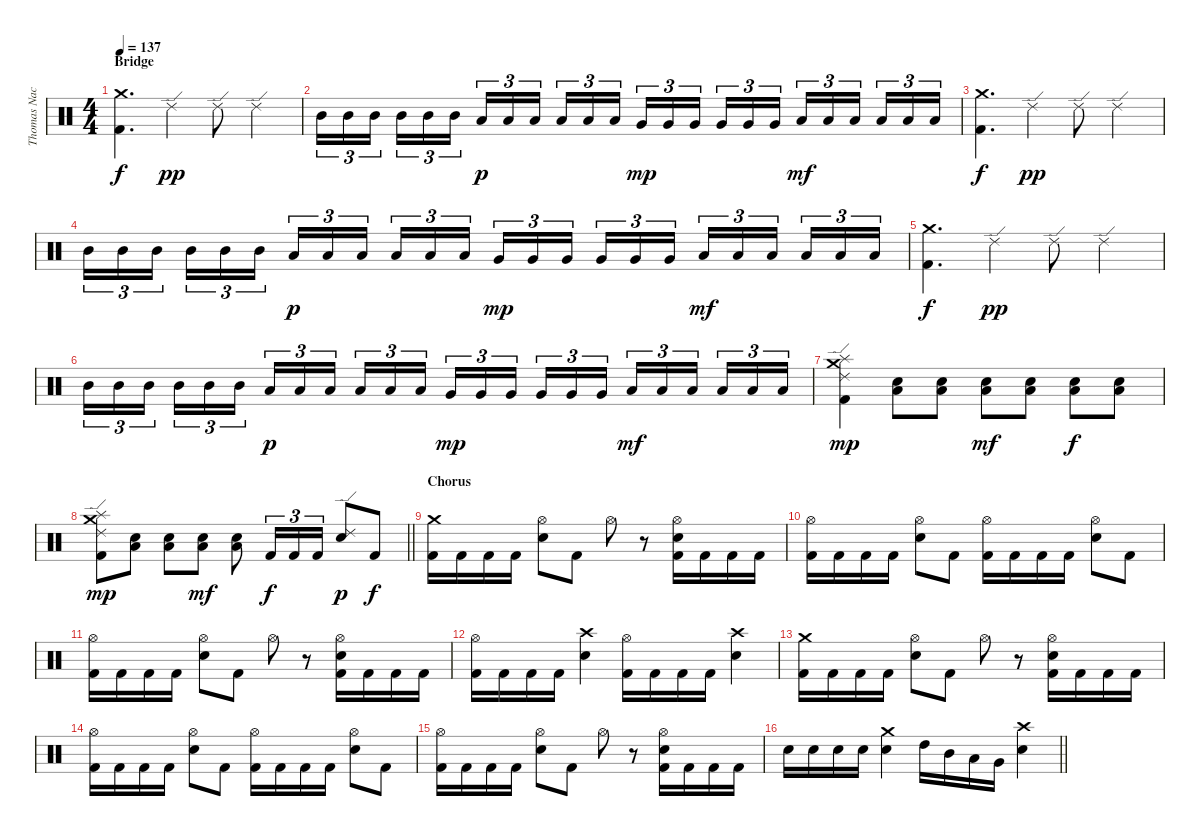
\track ("Thomas Nack" "Thomas Nac") {instrument percussion}
\staff {score}
\articulation defaults
\ts (4 4)
\section ("" "Bridge")
\tempo 137
\clef neutral
\ks c
("Crash medium (hit)" "Kick (hit) 2").4{d dy f} "Ride (edge) 2".4{dy pp} "Ride (edge) 2".8 "Ride (edge) 2".4 |
"Mid Tom (hit)".16{tu (3 2)} "Mid Tom (hit)".16{tu (3 2)} "Mid Tom (hit)".16{tu (3 2) beam splitsecondary} "Mid Tom (hit)".16{tu (3 2)} "Mid Tom (hit)".16{tu (3 2)} "Mid Tom (hit)".16{tu (3 2)} "Low Tom (hit)".16{tu (3 2) dy p} "Low Tom (hit)".16{tu (3 2)} "Low Tom (hit)".16{tu (3 2) beam splitsecondary} "Low Tom (hit)".16{tu (3 2)} "Low Tom (hit)".16{tu (3 2)} "Low Tom (hit)".16{tu (3 2)} "Very Low Tom (hit)".16{tu (3 2) dy mp} "Very Low Tom (hit)".16{tu (3 2)} "Very Low Tom (hit)".16{tu (3 2) beam splitsecondary} "Very Low Tom (hit)".16{tu (3 2)} "Very Low Tom (hit)".16{tu (3 2)} "Very Low Tom (hit)".16{tu (3 2)} "Low Floor Tom (hit)".16{tu (3 2) dy mf} "Low Floor Tom (hit)".16{tu (3 2)} "Low Floor Tom (hit)".16{tu (3 2) beam splitsecondary} "Low Floor Tom (hit)".16{tu (3 2)} "Low Floor Tom (hit)".16{tu (3 2)} "Low Floor Tom (hit)".16{tu (3 2)} |
("Crash medium (hit)" "Kick (hit) 2").4{d dy f} "Ride (edge) 2".4{dy pp} "Ride (edge) 2".8 "Ride (edge) 2".4 |
"Mid Tom (hit)".16{tu (3 2)} "Mid Tom (hit)".16{tu (3 2)} "Mid Tom (hit)".16{tu (3 2) beam splitsecondary} "Mid Tom (hit)".16{tu (3 2)} "Mid Tom (hit)".16{tu (3 2)} "Mid Tom (hit)".16{tu (3 2)} "Low Tom (hit)".16{tu (3 2) dy p} "Low Tom (hit)".16{tu (3 2)} "Low Tom (hit)".16{tu (3 2) beam splitsecondary} "Low Tom (hit)".16{tu (3 2)} "Low Tom (hit)".16{tu (3 2)} "Low Tom (hit)".16{tu (3 2)} "Very Low Tom (hit)".16{tu (3 2) dy mp} "Very Low Tom (hit)".16{tu (3 2)} "Very Low Tom (hit)".16{tu (3 2) beam splitsecondary} "Very Low Tom (hit)".16{tu (3 2)} "Very Low Tom (hit)".16{tu (3 2)} "Very Low Tom (hit)".16{tu (3 2)} "Low Floor Tom (hit)".16{tu (3 2) dy mf} "Low Floor Tom (hit)".16{tu (3 2)} "Low Floor Tom (hit)".16{tu (3 2) beam splitsecondary} "Low Floor Tom (hit)".16{tu (3 2)} "Low Floor Tom (hit)".16{tu (3 2)} "Low Floor Tom (hit)".16{tu (3 2)} |
("Crash medium (hit)" "Kick (hit) 2").4{d dy f} "Ride (edge) 2".4{dy pp} "Ride (edge) 2".8 "Ride (edge) 2".4 |
"Mid Tom (hit)".16{tu (3 2)} "Mid Tom (hit)".16{tu (3 2)} "Mid Tom (hit)".16{tu (3 2) beam splitsecondary} "Mid Tom (hit)".16{tu (3 2)} "Mid Tom (hit)".16{tu (3 2)} "Mid Tom (hit)".16{tu (3 2)} "Low Tom (hit)".16{tu (3 2) dy p} "Low Tom (hit)".16{tu (3 2)} "Low Tom (hit)".16{tu (3 2) beam splitsecondary} "Low Tom (hit)".16{tu (3 2)} "Low Tom (hit)".16{tu (3 2)} "Low Tom (hit)".16{tu (3 2)} "Very Low Tom (hit)".16{tu (3 2) dy mp} "Very Low Tom (hit)".16{tu (3 2)} "Very Low Tom (hit)".16{tu (3 2) beam splitsecondary} "Very Low Tom (hit)".16{tu (3 2)} "Very Low Tom (hit)".16{tu (3 2)} "Very Low Tom (hit)".16{tu (3 2)} "Low Floor Tom (hit)".16{tu (3 2) dy mf} "Low Floor Tom (hit)".16{tu (3 2)} "Low Floor Tom (hit)".16{tu (3 2) beam splitsecondary} "Low Floor Tom (hit)".16{tu (3 2)} "Low Floor Tom (hit)".16{tu (3 2)} "Low Floor Tom (hit)".16{tu (3 2)} |
("Crash medium (hit)" "Splash (hit)" "Ride (edge) 2" "Kick (hit) 2").4{dy mp} ("Electric Snare (hit)" "Low Floor Tom (hit)").8 ("Electric Snare (hit)" "Low Floor Tom (hit)").8 ("Electric Snare (hit)" "Low Floor Tom (hit)").8{dy mf} ("Electric Snare (hit)" "Low Floor Tom (hit)").8 ("Electric Snare (hit)" "Low Floor Tom (hit)").8{dy f} ("Electric Snare (hit)" "Low Floor Tom (hit)").8 |
\barLineRight lightlight
("Crash medium (hit)" "Splash (hit)" "Ride (edge) 2" "Kick (hit) 2").8{dy mp} ("Electric Snare (hit)" "Low Floor Tom (hit)").8 ("Electric Snare (hit)" "Low Floor Tom (hit)").8 ("Electric Snare (hit)" "Low Floor Tom (hit)").8{dy mf} ("Electric Snare (hit)" "Low Floor Tom (hit)").8 "Kick (hit) 2".16{tu (3 2) dy f} "Kick (hit) 2".16{tu (3 2)} "Kick (hit) 2".16{tu (3 2)} ("Ride (edge) 2" "Electric Snare (hit)").8{dy p} "Kick (hit) 2".8{dy f} |
\section ("" "Chorus")
("Crash medium (hit)" "Kick (hit) 2").16 "Kick (hit) 2".16 "Kick (hit) 2".16 "Kick (hit) 2".16 ("Hi-Hat (open)" "Electric Snare (hit)").8 "Kick (hit) 2".8 "Hi-Hat (open)".8 r.8 ("Hi-Hat (open)" "Electric Snare (hit)" "Kick (hit) 2").16 "Kick (hit) 2".16 "Kick (hit) 2".16 "Kick (hit) 2".16 |
("Hi-Hat (open)" "Kick (hit) 2").16 "Kick (hit) 2".16 "Kick (hit) 2".16 "Kick (hit) 2".16 ("Hi-Hat (open)" "Electric Snare (hit)").8 "Kick (hit) 2".8 ("Hi-Hat (open)" "Kick (hit) 2").16 "Kick (hit) 2".16 "Kick (hit) 2".16 "Kick (hit) 2".16 ("Hi-Hat (open)" "Electric Snare (hit)").8 "Kick (hit) 2".8 |
("Hi-Hat (open)" "Kick (hit) 2").16 "Kick (hit) 2".16 "Kick (hit) 2".16 "Kick (hit) 2".16 ("Hi-Hat (open)" "Electric Snare (hit)").8 "Kick (hit) 2".8 "Hi-Hat (open)".8 r.8 ("Hi-Hat (open)" "Electric Snare (hit)" "Kick (hit) 2").16 "Kick (hit) 2".16 "Kick (hit) 2".16 "Kick (hit) 2".16 |
("Hi-Hat (open)" "Kick (hit) 2").16 "Kick (hit) 2".16 "Kick (hit) 2".16 "Kick (hit) 2".16 ("Crash high (hit)" "Electric Snare (hit)").4 ("Hi-Hat (open)" "Kick (hit) 2").16 "Kick (hit) 2".16 "Kick (hit) 2".16 "Kick (hit) 2".16 ("Crash high (hit)" "Electric Snare (hit)").4 |
("Crash medium (hit)" "Kick (hit) 2").16 "Kick (hit) 2".16 "Kick (hit) 2".16 "Kick (hit) 2".16 ("Hi-Hat (open)" "Electric Snare (hit)").8 "Kick (hit) 2".8 "Hi-Hat (open)".8 r.8 ("Hi-Hat (open)" "Electric Snare (hit)" "Kick (hit) 2").16 "Kick (hit) 2".16 "Kick (hit) 2".16 "Kick (hit) 2".16 |
("Hi-Hat (open)" "Kick (hit) 2").16 "Kick (hit) 2".16 "Kick (hit) 2".16 "Kick (hit) 2".16 ("Hi-Hat (open)" "Electric Snare (hit)").8 "Kick (hit) 2".8 ("Hi-Hat (open)" "Kick (hit) 2").16 "Kick (hit) 2".16 "Kick (hit) 2".16 "Kick (hit) 2".16 ("Hi-Hat (open)" "Electric Snare (hit)").8 "Kick (hit) 2".8 |
("Hi-Hat (open)" "Kick (hit) 2").16 "Kick (hit) 2".16 "Kick (hit) 2".16 "Kick (hit) 2".16 ("Hi-Hat (open)" "Electric Snare (hit)").8 "Kick (hit) 2".8 "Hi-Hat (open)".8 r.8 ("Hi-Hat (open)" "Electric Snare (hit)" "Kick (hit) 2").16 "Kick (hit) 2".16 "Kick (hit) 2".16 "Kick (hit) 2".16 |
\barLineRight lightlight "Electric Snare (hit)".16 "Electric Snare (hit)".16 "Electric Snare (hit)".16 "Electric Snare (hit)".16
("Crash medium (hit)" "Electric Snare (hit)").4 "High Tom (hit)".16 "Mid Tom (hit)".16 "Low Tom (hit)".16 "Very Low Tom (hit)".16 ("Crash high (hit)" "Electric Snare (hit)").4
